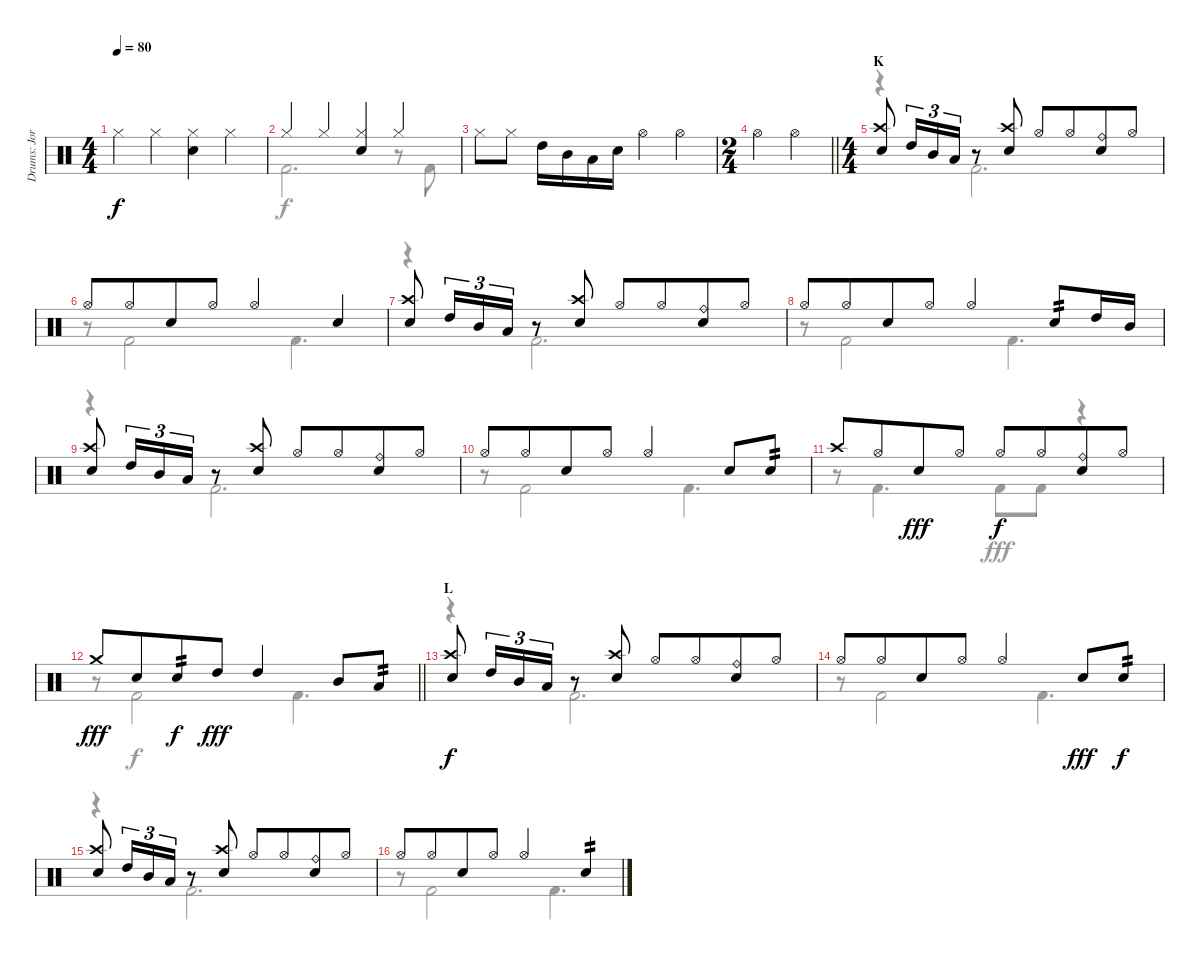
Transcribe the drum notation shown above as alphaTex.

\track ("Drums: Jorg" "Drums: Jor") {instrument percussion}
\staff {score}
\articulation defaults
\voice
\ts (4 4)
\tempo 80
\clef neutral
\ks c "Hi-Hat (closed)".4{dy f} "Hi-Hat (closed)".4
("Hi-Hat (closed)" "Snare (hit) 2").4 "Hi-Hat (closed)".4 |
"Hi-Hat (closed)".4 "Hi-Hat (closed)".4 ("Hi-Hat (closed)" "Snare (hit) 2").4 "Hi-Hat (closed)".4 |
"Hi-Hat (closed)".8 "Hi-Hat (closed)".8 "High Tom (hit)".16 "Mid Tom (hit)".16 "Low Tom (hit)".16 "Electric Snare (hit)".16 "Hi-Hat (open)".4 "Hi-Hat (open)".4 |
\ts (2 4)
\barLineRight lightlight "Hi-Hat (open)".4 "Hi-Hat (open)".4
|
\ts (4 4)
\section ("" "K")
("Crash high (hit)" "Snare (hit) 2").8 "High Tom (hit)".16{tu (3 2)} "Mid Tom (hit)".16{tu (3 2)} "Low Tom (hit)".16{tu (3 2)} r.8 ("Crash high (hit)" "Snare (hit) 2").8 "Hi-Hat (open)".8 "Hi-Hat (open)".8{beam merge} ("Ride (bell)" "Snare (hit) 2").8 "Hi-Hat (open)".8 |
"Hi-Hat (open)".8 "Hi-Hat (open)".8{beam merge} "Snare (hit) 2".8 "Hi-Hat (open)".8 "Hi-Hat (open)".4 "Snare (hit) 2".4 |
("Crash high (hit)" "Snare (hit) 2").8 "High Tom (hit)".16{tu (3 2)} "Mid Tom (hit)".16{tu (3 2)} "Low Tom (hit)".16{tu (3 2)} r.8 ("Crash high (hit)" "Snare (hit) 2").8 "Hi-Hat (open)".8 "Hi-Hat (open)".8{beam merge} ("Ride (bell)" "Snare (hit) 2").8 "Hi-Hat (open)".8 |
"Hi-Hat (open)".8 "Hi-Hat (open)".8{beam merge} "Snare (hit) 2".8 "Hi-Hat (open)".8 "Hi-Hat (open)".4 "Snare (hit) 2".8{tp 2} "High Tom (hit)".16 "Mid Tom (hit)".16 |
("Crash high (hit)" "Snare (hit) 2").8 "High Tom (hit)".16{tu (3 2)} "Mid Tom (hit)".16{tu (3 2)} "Low Tom (hit)".16{tu (3 2)} r.8 ("Crash high (hit)" "Snare (hit) 2").8 "Hi-Hat (open)".8 "Hi-Hat (open)".8{beam merge} ("Ride (bell)" "Snare (hit) 2").8 "Hi-Hat (open)".8 |
"Hi-Hat (open)".8 "Hi-Hat (open)".8{beam merge} "Snare (hit) 2".8 "Hi-Hat (open)".8 "Hi-Hat (open)".4 "Snare (hit) 2".8 "Snare (hit) 2".8{tp 2} |
"Crash high (hit)".8 "Hi-Hat (open)".8{beam merge} "Snare (hit) 2".8{dy fff} "Hi-Hat (open)".8 "Hi-Hat (open)".8{dy f} "Hi-Hat (open)".8{beam merge} ("Ride (bell)" "Snare (hit) 2").8 "Hi-Hat (open)".8 |
\barLineRight lightlight "Crash medium (hit)".8{dy fff} "Snare (hit) 2".8{beam merge} "Electric Snare (hit)".8{tp 2 dy f} "High Tom (hit)".8{dy fff} "High Tom (hit)".4 "Mid Tom (hit)".8 "Low Tom (hit)".8{tp 2}
|
\section ("" "L")
("Crash high (hit)" "Snare (hit) 2").8{dy f} "High Tom (hit)".16{tu (3 2)} "Mid Tom (hit)".16{tu (3 2)} "Low Tom (hit)".16{tu (3 2)} r.8 ("Crash high (hit)" "Snare (hit) 2").8 "Hi-Hat (open)".8 "Hi-Hat (open)".8{beam merge} ("Ride (bell)" "Snare (hit) 2").8 "Hi-Hat (open)".8 |
"Hi-Hat (open)".8 "Hi-Hat (open)".8{beam merge} "Snare (hit) 2".8 "Hi-Hat (open)".8 "Hi-Hat (open)".4 "Snare (hit) 2".8{dy fff} "Snare (hit) 2".8{tp 2 dy f} |
("Crash high (hit)" "Snare (hit) 2").8 "High Tom (hit)".16{tu (3 2)} "Mid Tom (hit)".16{tu (3 2)} "Low Tom (hit)".16{tu (3 2)} r.8 ("Crash high (hit)" "Snare (hit) 2").8 "Hi-Hat (open)".8 "Hi-Hat (open)".8{beam merge} ("Ride (bell)" "Snare (hit) 2").8 "Hi-Hat (open)".8 |
"Hi-Hat (open)".8 "Hi-Hat (open)".8{beam merge} "Snare (hit) 2".8 "Hi-Hat (open)".8 "Hi-Hat (open)".4 "Snare (hit) 2".4{tp 2}
\voice
\clef neutral
\ottava regular
\simile none
\ks c
|
"Kick (hit) 2".2{d} r.8 "Kick (hit) 2".8 |
|
\barLineRight lightlight
|
r.4 "Kick (hit) 2".2{d} |
r.8 "Kick (hit) 2".2 "Kick (hit) 2".4{d} |
r.4 "Kick (hit) 2".2{d} |
r.8 "Kick (hit) 2".2 "Kick (hit) 2".4{d} |
r.4 "Kick (hit) 2".2{d} |
r.8 "Kick (hit) 2".2 "Kick (hit) 2".4{d} |
r.8 "Kick (hit) 2".4{d} "Kick (hit) 2".8{dy fff} "Kick (hit) 2".8 r.4 |
\barLineRight lightlight
r.8 "Kick (hit) 2".2{dy f} "Kick (hit) 2".4{d} |
r.4 "Kick (hit) 2".2{d} |
r.8 "Kick (hit) 2".2 "Kick (hit) 2".4{d} |
r.4 "Kick (hit) 2".2{d} |
r.8 "Kick (hit) 2".2 "Kick (hit) 2".4{d}
